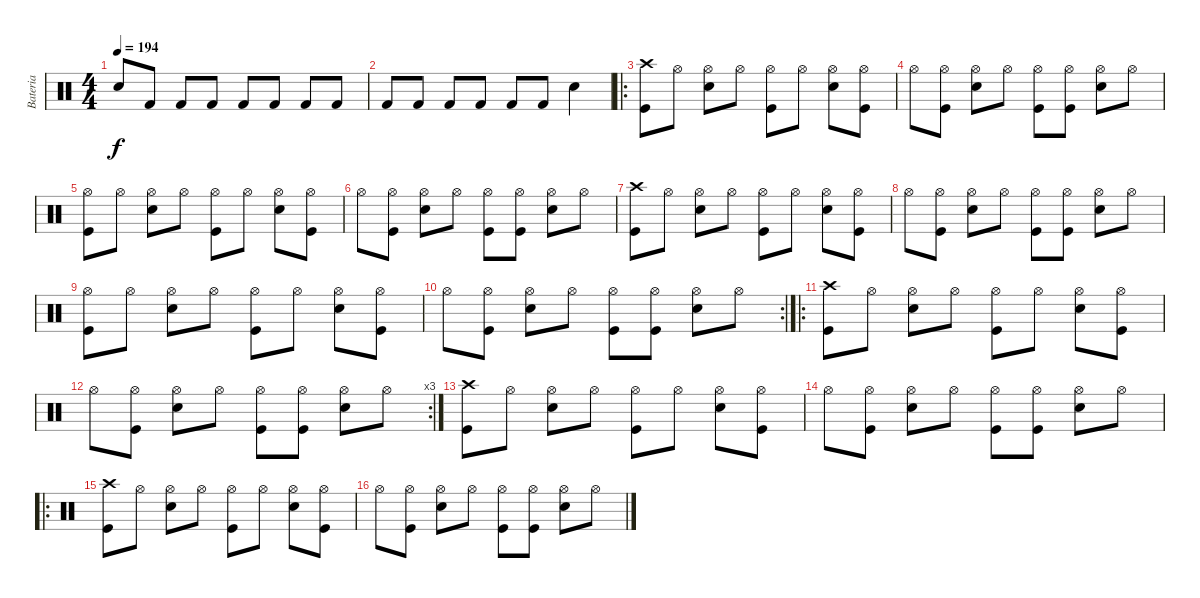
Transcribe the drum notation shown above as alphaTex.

\track ("Bateria" "Bateria") {instrument percussion}
\staff {score}
\articulation defaults
\ts (4 4)
\tempo 194
\clef neutral
\ks c "Snare (hit) 2".8{dy f} "Kick (hit) 2".8 "Kick (hit) 2".8 "Kick (hit) 2".8 "Kick (hit) 2".8 "Kick (hit) 2".8 "Kick (hit) 2".8 "Kick (hit) 2".8
|
"Kick (hit) 2".8 "Kick (hit) 2".8 "Kick (hit) 2".8 "Kick (hit) 2".8 "Kick (hit) 2".8 "Kick (hit) 2".8 "Electric Snare (hit)".4 |
\ro
("Crash high (hit)" "Kick (hit)").8 "Hi-Hat (open)".8 ("Electric Snare (hit)" "Hi-Hat (open)").8 "Hi-Hat (open)".8 ("Hi-Hat (open)" "Kick (hit)").8 "Hi-Hat (open)".8 ("Electric Snare (hit)" "Hi-Hat (open)").8 ("Hi-Hat (open)" "Kick (hit)").8 |
"Hi-Hat (open)".8 ("Hi-Hat (open)" "Kick (hit)").8 ("Electric Snare (hit)" "Hi-Hat (open)").8 "Hi-Hat (open)".8 ("Hi-Hat (open)" "Kick (hit)").8 ("Hi-Hat (open)" "Kick (hit)").8 ("Electric Snare (hit)" "Hi-Hat (open)").8 "Hi-Hat (open)".8 |
("Hi-Hat (open)" "Kick (hit)").8 "Hi-Hat (open)".8 ("Electric Snare (hit)" "Hi-Hat (open)").8 "Hi-Hat (open)".8 ("Hi-Hat (open)" "Kick (hit)").8 "Hi-Hat (open)".8 ("Electric Snare (hit)" "Hi-Hat (open)").8 ("Hi-Hat (open)" "Kick (hit)").8 |
"Hi-Hat (open)".8 ("Hi-Hat (open)" "Kick (hit)").8 ("Electric Snare (hit)" "Hi-Hat (open)").8 "Hi-Hat (open)".8 ("Hi-Hat (open)" "Kick (hit)").8 ("Hi-Hat (open)" "Kick (hit)").8 ("Electric Snare (hit)" "Hi-Hat (open)").8 "Hi-Hat (open)".8 |
("Crash high (hit)" "Kick (hit)").8 "Hi-Hat (open)".8 ("Electric Snare (hit)" "Hi-Hat (open)").8 "Hi-Hat (open)".8 ("Hi-Hat (open)" "Kick (hit)").8 "Hi-Hat (open)".8 ("Electric Snare (hit)" "Hi-Hat (open)").8 ("Hi-Hat (open)" "Kick (hit)").8 |
"Hi-Hat (open)".8 ("Hi-Hat (open)" "Kick (hit)").8 ("Electric Snare (hit)" "Hi-Hat (open)").8 "Hi-Hat (open)".8 ("Hi-Hat (open)" "Kick (hit)").8 ("Hi-Hat (open)" "Kick (hit)").8 ("Electric Snare (hit)" "Hi-Hat (open)").8 "Hi-Hat (open)".8 |
("Hi-Hat (open)" "Kick (hit)").8 "Hi-Hat (open)".8 ("Electric Snare (hit)" "Hi-Hat (open)").8 "Hi-Hat (open)".8 ("Hi-Hat (open)" "Kick (hit)").8 "Hi-Hat (open)".8 ("Electric Snare (hit)" "Hi-Hat (open)").8 ("Hi-Hat (open)" "Kick (hit)").8 |
\rc 2 "Hi-Hat (open)".8
("Hi-Hat (open)" "Kick (hit)").8 ("Electric Snare (hit)" "Hi-Hat (open)").8 "Hi-Hat (open)".8 ("Hi-Hat (open)" "Kick (hit)").8 ("Hi-Hat (open)" "Kick (hit)").8 ("Electric Snare (hit)" "Hi-Hat (open)").8 "Hi-Hat (open)".8 |
\ro
("Crash high (hit)" "Kick (hit)").8 "Hi-Hat (open)".8 ("Electric Snare (hit)" "Hi-Hat (open)").8 "Hi-Hat (open)".8 ("Hi-Hat (open)" "Kick (hit)").8 "Hi-Hat (open)".8 ("Electric Snare (hit)" "Hi-Hat (open)").8 ("Hi-Hat (open)" "Kick (hit)").8 |
\rc 3 "Hi-Hat (open)".8
("Hi-Hat (open)" "Kick (hit)").8 ("Electric Snare (hit)" "Hi-Hat (open)").8 "Hi-Hat (open)".8 ("Hi-Hat (open)" "Kick (hit)").8 ("Hi-Hat (open)" "Kick (hit)").8 ("Electric Snare (hit)" "Hi-Hat (open)").8 "Hi-Hat (open)".8 |
("Crash high (hit)" "Kick (hit)").8 "Hi-Hat (open)".8 ("Electric Snare (hit)" "Hi-Hat (open)").8 "Hi-Hat (open)".8 ("Hi-Hat (open)" "Kick (hit)").8 "Hi-Hat (open)".8 ("Electric Snare (hit)" "Hi-Hat (open)").8 ("Hi-Hat (open)" "Kick (hit)").8 |
"Hi-Hat (open)".8 ("Hi-Hat (open)" "Kick (hit)").8 ("Electric Snare (hit)" "Hi-Hat (open)").8 "Hi-Hat (open)".8 ("Hi-Hat (open)" "Kick (hit)").8 ("Hi-Hat (open)" "Kick (hit)").8 ("Electric Snare (hit)" "Hi-Hat (open)").8 "Hi-Hat (open)".8 |
\ro
("Crash high (hit)" "Kick (hit)").8 "Hi-Hat (open)".8 ("Electric Snare (hit)" "Hi-Hat (open)").8 "Hi-Hat (open)".8 ("Hi-Hat (open)" "Kick (hit)").8 "Hi-Hat (open)".8 ("Electric Snare (hit)" "Hi-Hat (open)").8 ("Hi-Hat (open)" "Kick (hit)").8 |
"Hi-Hat (open)".8 ("Hi-Hat (open)" "Kick (hit)").8 ("Electric Snare (hit)" "Hi-Hat (open)").8 "Hi-Hat (open)".8 ("Hi-Hat (open)" "Kick (hit)").8 ("Hi-Hat (open)" "Kick (hit)").8 ("Electric Snare (hit)" "Hi-Hat (open)").8 "Hi-Hat (open)".8
